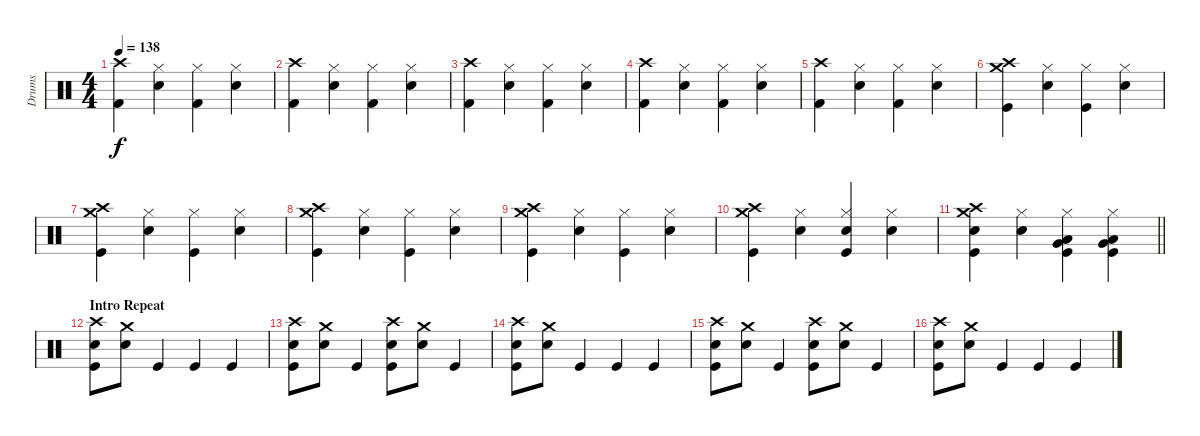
\track ("Drums" "Drums") {instrument percussion}
\staff {score}
\articulation defaults
\ts (4 4)
\tempo 138
\clef neutral
\ks c
("Crash high (hit)" "Kick (hit) 2").4{dy f} ("Snare (hit) 2" "Hi-Hat (closed)").4 ("Hi-Hat (closed)" "Kick (hit) 2").4 ("Snare (hit) 2" "Hi-Hat (closed)").4 |
("Crash high (hit)" "Kick (hit) 2").4 ("Snare (hit) 2" "Hi-Hat (closed)").4 ("Hi-Hat (closed)" "Kick (hit) 2").4 ("Snare (hit) 2" "Hi-Hat (closed)").4 |
("Crash high (hit)" "Kick (hit) 2").4 ("Snare (hit) 2" "Hi-Hat (closed)").4 ("Hi-Hat (closed)" "Kick (hit) 2").4 ("Snare (hit) 2" "Hi-Hat (closed)").4 |
("Crash high (hit)" "Kick (hit) 2").4 ("Snare (hit) 2" "Hi-Hat (closed)").4 ("Hi-Hat (closed)" "Kick (hit) 2").4 ("Snare (hit) 2" "Hi-Hat (closed)").4 |
("Crash high (hit)" "Kick (hit) 2").4 ("Snare (hit) 2" "Hi-Hat (closed)").4 ("Hi-Hat (closed)" "Kick (hit) 2").4 ("Snare (hit) 2" "Hi-Hat (closed)").4 |
("Crash high (hit)" "Crash medium (hit)" "Kick (hit)").4 ("Hi-Hat (closed)" "Snare (hit) 2").4 ("Hi-Hat (closed)" "Kick (hit)").4 ("Hi-Hat (closed)" "Snare (hit) 2").4 |
("Crash high (hit)" "Crash medium (hit)" "Kick (hit)").4 ("Hi-Hat (closed)" "Snare (hit) 2").4 ("Hi-Hat (closed)" "Kick (hit)").4 ("Hi-Hat (closed)" "Snare (hit) 2").4 |
("Crash high (hit)" "Crash medium (hit)" "Kick (hit)").4 ("Hi-Hat (closed)" "Snare (hit) 2").4 ("Hi-Hat (closed)" "Kick (hit)").4 ("Hi-Hat (closed)" "Snare (hit) 2").4 |
("Crash high (hit)" "Crash medium (hit)" "Kick (hit)").4 ("Hi-Hat (closed)" "Snare (hit) 2").4 ("Hi-Hat (closed)" "Kick (hit)").4 ("Hi-Hat (closed)" "Snare (hit) 2").4 |
("Crash high (hit)" "Crash medium (hit)" "Kick (hit)").4 ("Hi-Hat (closed)" "Snare (hit) 2").4 ("Hi-Hat (closed)" "Snare (hit) 2" "Kick (hit)").4 ("Hi-Hat (closed)" "Snare (hit) 2").4 |
\barLineRight lightlight
("Crash high (hit)" "Snare (hit) 2" "Crash medium (hit)" "Kick (hit)").4 ("Hi-Hat (closed)" "Snare (hit) 2").4 ("Hi-Hat (closed)" "Low Tom (hit)" "Very Low Tom (hit)" "Kick (hit)").4 ("Hi-Hat (closed)" "Very Low Tom (hit)" "Low Floor Tom (hit)" "Kick (hit)").4 |
\section ("" "Intro Repeat")
("Crash high (hit)" "Snare (hit) 2" "Kick (hit)").8 ("Crash medium (hit)" "Snare (hit) 2").8 "Kick (hit)".4 "Kick (hit)".4 "Kick (hit)".4 |
("Crash high (hit)" "Snare (hit) 2" "Kick (hit)").8 ("Crash medium (hit)" "Snare (hit) 2").8 "Kick (hit)".4 ("Crash high (hit)" "Snare (hit) 2" "Kick (hit)").8 ("Crash medium (hit)" "Snare (hit) 2").8 "Kick (hit)".4 |
("Crash high (hit)" "Snare (hit) 2" "Kick (hit)").8 ("Crash medium (hit)" "Snare (hit) 2").8 "Kick (hit)".4 "Kick (hit)".4 "Kick (hit)".4 |
("Crash high (hit)" "Snare (hit) 2" "Kick (hit)").8 ("Crash medium (hit)" "Snare (hit) 2").8 "Kick (hit)".4 ("Crash high (hit)" "Snare (hit) 2" "Kick (hit)").8 ("Crash medium (hit)" "Snare (hit) 2").8 "Kick (hit)".4 |
("Crash high (hit)" "Snare (hit) 2" "Kick (hit)").8 ("Crash medium (hit)" "Snare (hit) 2").8 "Kick (hit)".4 "Kick (hit)".4 "Kick (hit)".4
